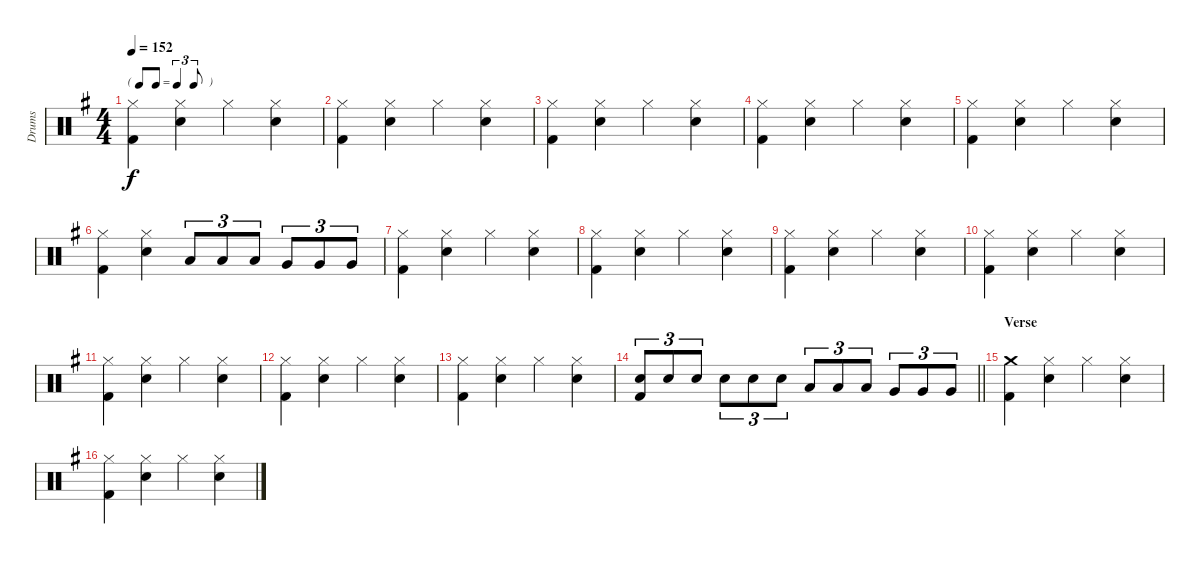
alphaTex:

\track ("Drums" "Drums") {instrument percussion}
\staff {score}
\articulation defaults
\ts (4 4)
\tf triplet8th
\tempo 152
\clef neutral
\ks g
("Hi-Hat (closed)" "Kick (hit) 2").4{dy f} ("Hi-Hat (closed)" "Snare (hit) 2").4 "Hi-Hat (closed)".4 ("Hi-Hat (closed)" "Snare (hit) 2").4 |
("Hi-Hat (closed)" "Kick (hit) 2").4 ("Hi-Hat (closed)" "Snare (hit) 2").4 "Hi-Hat (closed)".4 ("Hi-Hat (closed)" "Snare (hit) 2").4 |
("Hi-Hat (closed)" "Kick (hit) 2").4 ("Hi-Hat (closed)" "Snare (hit) 2").4 "Hi-Hat (closed)".4 ("Hi-Hat (closed)" "Snare (hit) 2").4 |
("Hi-Hat (closed)" "Kick (hit) 2").4 ("Hi-Hat (closed)" "Snare (hit) 2").4 "Hi-Hat (closed)".4 ("Hi-Hat (closed)" "Snare (hit) 2").4 |
("Hi-Hat (closed)" "Kick (hit) 2").4 ("Hi-Hat (closed)" "Snare (hit) 2").4 "Hi-Hat (closed)".4 ("Hi-Hat (closed)" "Snare (hit) 2").4 |
("Hi-Hat (closed)" "Kick (hit) 2").4 ("Hi-Hat (closed)" "Snare (hit) 2").4 "Low Tom (hit)".8{tu (3 2)} "Low Tom (hit)".8{tu (3 2)} "Low Tom (hit)".8{tu (3 2)} "Very Low Tom (hit)".8{tu (3 2)} "Very Low Tom (hit)".8{tu (3 2)} "Very Low Tom (hit)".8{tu (3 2)} |
("Hi-Hat (closed)" "Kick (hit) 2").4 ("Hi-Hat (closed)" "Snare (hit) 2").4 "Hi-Hat (closed)".4 ("Hi-Hat (closed)" "Snare (hit) 2").4 |
("Hi-Hat (closed)" "Kick (hit) 2").4 ("Hi-Hat (closed)" "Snare (hit) 2").4 "Hi-Hat (closed)".4 ("Hi-Hat (closed)" "Snare (hit) 2").4 |
("Hi-Hat (closed)" "Kick (hit) 2").4 ("Hi-Hat (closed)" "Snare (hit) 2").4 "Hi-Hat (closed)".4 ("Hi-Hat (closed)" "Snare (hit) 2").4 |
("Hi-Hat (closed)" "Kick (hit) 2").4 ("Hi-Hat (closed)" "Snare (hit) 2").4 "Hi-Hat (closed)".4 ("Hi-Hat (closed)" "Snare (hit) 2").4 |
("Hi-Hat (closed)" "Kick (hit) 2").4 ("Hi-Hat (closed)" "Snare (hit) 2").4 "Hi-Hat (closed)".4 ("Hi-Hat (closed)" "Snare (hit) 2").4 |
("Hi-Hat (closed)" "Kick (hit) 2").4 ("Hi-Hat (closed)" "Snare (hit) 2").4 "Hi-Hat (closed)".4 ("Hi-Hat (closed)" "Snare (hit) 2").4 |
("Hi-Hat (closed)" "Kick (hit) 2").4 ("Hi-Hat (closed)" "Snare (hit) 2").4 "Hi-Hat (closed)".4 ("Hi-Hat (closed)" "Snare (hit) 2").4 |
\barLineRight lightlight
("Snare (hit) 2" "Kick (hit) 2").8{tu (3 2)} "Snare (hit) 2".8{tu (3 2)} "Snare (hit) 2".8{tu (3 2)} "Snare (hit) 2".8{tu (3 2)} "Snare (hit) 2".8{tu (3 2)} "Snare (hit) 2".8{tu (3 2)} "Low Tom (hit)".8{tu (3 2)} "Low Tom (hit)".8{tu (3 2)} "Low Tom (hit)".8{tu (3 2)} "Very Low Tom (hit)".8{tu (3 2)} "Very Low Tom (hit)".8{tu (3 2)} "Very Low Tom (hit)".8{tu (3 2)} |
\section ("" "Verse")
("Crash medium (hit)" "Kick (hit) 2").4 ("Hi-Hat (closed)" "Snare (hit) 2").4 "Hi-Hat (closed)".4 ("Hi-Hat (closed)" "Snare (hit) 2").4 |
("Hi-Hat (closed)" "Kick (hit) 2").4 ("Hi-Hat (closed)" "Snare (hit) 2").4 "Hi-Hat (closed)".4 ("Hi-Hat (closed)" "Snare (hit) 2").4
